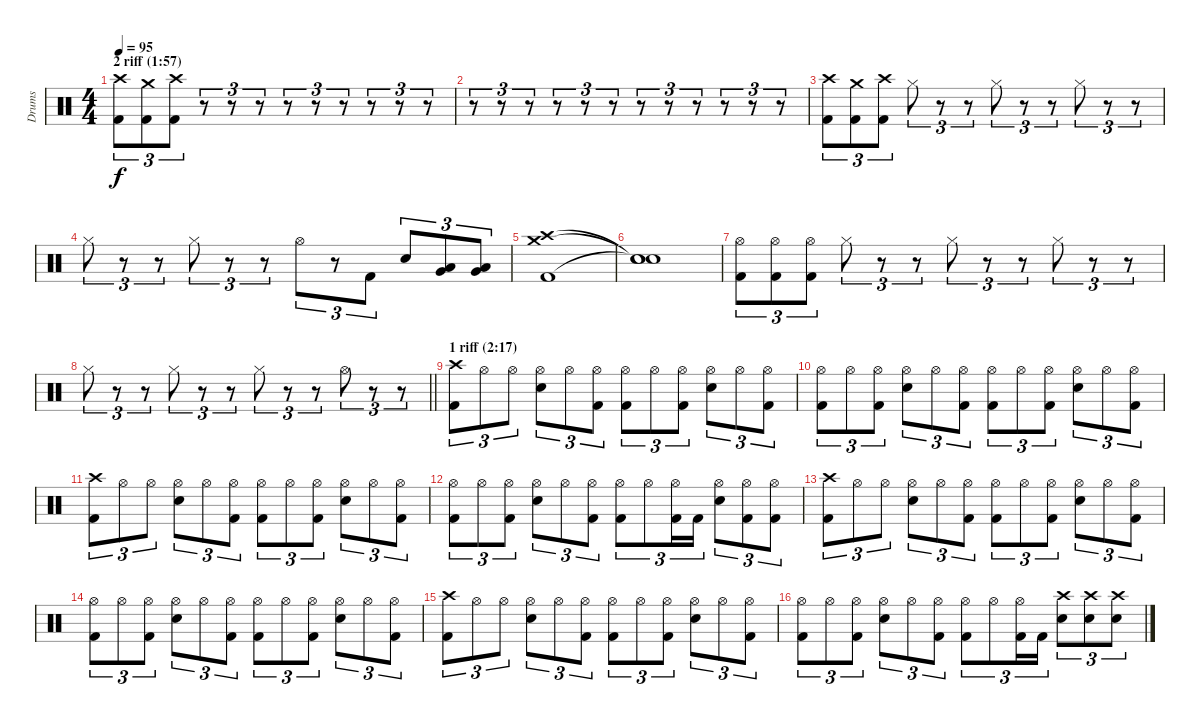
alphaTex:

\track ("Drums" "Drums") {instrument percussion}
\staff {score}
\articulation defaults
\ts (4 4)
\section ("" "2 riff (1:57)")
\tempo 95
\clef neutral
\ks c
("Crash high (hit)" "Kick (hit) 2").8{tu (3 2) dy f} ("Crash medium (hit)" "Kick (hit) 2").8{tu (3 2)} ("Crash high (hit)" "Kick (hit) 2").8{tu (3 2)} r.8{tu (3 2)} r.8{tu (3 2)} r.8{tu (3 2)} r.8{tu (3 2)} r.8{tu (3 2)} r.8{tu (3 2)} r.8{tu (3 2)} r.8{tu (3 2)} r.8{tu (3 2)} |
r.8{tu (3 2)} r.8{tu (3 2)} r.8{tu (3 2)} r.8{tu (3 2)} r.8{tu (3 2)} r.8{tu (3 2)} r.8{tu (3 2)} r.8{tu (3 2)} r.8{tu (3 2)} r.8{tu (3 2)} r.8{tu (3 2)} r.8{tu (3 2)} |
("Crash high (hit)" "Kick (hit) 2").8{tu (3 2)} ("Crash medium (hit)" "Kick (hit) 2").8{tu (3 2)} ("Crash high (hit)" "Kick (hit) 2").8{tu (3 2)} "Hi-Hat (closed)".8{tu (3 2)} r.8{tu (3 2)} r.8{tu (3 2)} "Hi-Hat (closed)".8{tu (3 2)} r.8{tu (3 2)} r.8{tu (3 2)} "Hi-Hat (closed)".8{tu (3 2)} r.8{tu (3 2)} r.8{tu (3 2)} |
"Hi-Hat (closed)".8{tu (3 2)} r.8{tu (3 2)} r.8{tu (3 2)} "Hi-Hat (closed)".8{tu (3 2)} r.8{tu (3 2)} r.8{tu (3 2)} "Hi-Hat (open)".8{tu (3 2)} r.8{tu (3 2)} "Kick (hit) 2".8{tu (3 2)} "Snare (hit) 2".8{tu (3 2)} ("Low Tom (hit)" "Very Low Tom (hit)").8{tu (3 2)} ("Low Tom (hit)" "Very Low Tom (hit)").8{tu (3 2)} |
("Crash medium (hit)" "Crash high (hit)" "Kick (hit) 2").1 |
("Snare (hit)"{t} "Snare (hit)"{t} "Snare (hit)"{t}).1 |
("Hi-Hat (open)" "Kick (hit) 2").8{tu (3 2)} ("Hi-Hat (open)" "Kick (hit) 2").8{tu (3 2)} ("Hi-Hat (open)" "Kick (hit) 2").8{tu (3 2)} "Hi-Hat (closed)".8{tu (3 2)} r.8{tu (3 2)} r.8{tu (3 2)} "Hi-Hat (closed)".8{tu (3 2)} r.8{tu (3 2)} r.8{tu (3 2)} "Hi-Hat (closed)".8{tu (3 2)} r.8{tu (3 2)} r.8{tu (3 2)} |
\barLineRight lightlight "Hi-Hat (closed)".8{tu (3 2)}
r.8{tu (3 2)} r.8{tu (3 2)} "Hi-Hat (closed)".8{tu (3 2)} r.8{tu (3 2)} r.8{tu (3 2)} "Hi-Hat (closed)".8{tu (3 2)} r.8{tu (3 2)} r.8{tu (3 2)} "Hi-Hat (open)".8{tu (3 2)} r.8{tu (3 2)} r.8{tu (3 2)} |
\section ("" "1 riff (2:17)")
("Crash high (hit)" "Kick (hit) 2").8{tu (3 2)} "Hi-Hat (open)".8{tu (3 2)} "Hi-Hat (open)".8{tu (3 2)} ("Hi-Hat (open)" "Snare (hit) 2").8{tu (3 2)} "Hi-Hat (open)".8{tu (3 2)} ("Hi-Hat (open)" "Kick (hit) 2").8{tu (3 2)} ("Hi-Hat (open)" "Kick (hit) 2").8{tu (3 2)} "Hi-Hat (open)".8{tu (3 2)} ("Hi-Hat (open)" "Kick (hit) 2").8{tu (3 2)} ("Hi-Hat (open)" "Snare (hit) 2").8{tu (3 2)} "Hi-Hat (open)".8{tu (3 2)} ("Hi-Hat (open)" "Kick (hit) 2").8{tu (3 2)} |
("Hi-Hat (open)" "Kick (hit) 2").8{tu (3 2)} "Hi-Hat (open)".8{tu (3 2)} ("Hi-Hat (open)" "Kick (hit) 2").8{tu (3 2)} ("Hi-Hat (open)" "Snare (hit) 2").8{tu (3 2)} "Hi-Hat (open)".8{tu (3 2)} ("Hi-Hat (open)" "Kick (hit) 2").8{tu (3 2)} ("Hi-Hat (open)" "Kick (hit) 2").8{tu (3 2)} "Hi-Hat (open)".8{tu (3 2)} ("Hi-Hat (open)" "Kick (hit) 2").8{tu (3 2)} ("Hi-Hat (open)" "Snare (hit) 2").8{tu (3 2)} "Hi-Hat (open)".8{tu (3 2)} ("Hi-Hat (open)" "Kick (hit) 2").8{tu (3 2)} |
("Crash high (hit)" "Kick (hit) 2").8{tu (3 2)} "Hi-Hat (open)".8{tu (3 2)} "Hi-Hat (open)".8{tu (3 2)} ("Hi-Hat (open)" "Snare (hit) 2").8{tu (3 2)} "Hi-Hat (open)".8{tu (3 2)} ("Hi-Hat (open)" "Kick (hit) 2").8{tu (3 2)} ("Hi-Hat (open)" "Kick (hit) 2").8{tu (3 2)} "Hi-Hat (open)".8{tu (3 2)} ("Hi-Hat (open)" "Kick (hit) 2").8{tu (3 2)} ("Hi-Hat (open)" "Snare (hit) 2").8{tu (3 2)} "Hi-Hat (open)".8{tu (3 2)} ("Hi-Hat (open)" "Kick (hit) 2").8{tu (3 2)} |
("Hi-Hat (open)" "Kick (hit) 2").8{tu (3 2)} "Hi-Hat (open)".8{tu (3 2)} ("Hi-Hat (open)" "Kick (hit) 2").8{tu (3 2)} ("Hi-Hat (open)" "Snare (hit) 2").8{tu (3 2)} "Hi-Hat (open)".8{tu (3 2)} ("Hi-Hat (open)" "Kick (hit) 2").8{tu (3 2)} ("Hi-Hat (open)" "Kick (hit) 2").8{tu (3 2)} "Hi-Hat (open)".8{tu (3 2)} ("Hi-Hat (open)" "Kick (hit) 2").16{tu (3 2)} "Kick (hit) 2".16{tu (3 2)} ("Hi-Hat (open)" "Snare (hit) 2").8{tu (3 2)} ("Hi-Hat (open)" "Kick (hit) 2").8{tu (3 2)} ("Hi-Hat (open)" "Kick (hit) 2").8{tu (3 2)} |
("Crash high (hit)" "Kick (hit) 2").8{tu (3 2)} "Hi-Hat (open)".8{tu (3 2)} "Hi-Hat (open)".8{tu (3 2)} ("Hi-Hat (open)" "Snare (hit) 2").8{tu (3 2)} "Hi-Hat (open)".8{tu (3 2)} ("Hi-Hat (open)" "Kick (hit) 2").8{tu (3 2)} ("Hi-Hat (open)" "Kick (hit) 2").8{tu (3 2)} "Hi-Hat (open)".8{tu (3 2)} ("Hi-Hat (open)" "Kick (hit) 2").8{tu (3 2)} ("Hi-Hat (open)" "Snare (hit) 2").8{tu (3 2)} "Hi-Hat (open)".8{tu (3 2)} ("Hi-Hat (open)" "Kick (hit) 2").8{tu (3 2)} |
("Hi-Hat (open)" "Kick (hit) 2").8{tu (3 2)} "Hi-Hat (open)".8{tu (3 2)} ("Hi-Hat (open)" "Kick (hit) 2").8{tu (3 2)} ("Hi-Hat (open)" "Snare (hit) 2").8{tu (3 2)} "Hi-Hat (open)".8{tu (3 2)} ("Hi-Hat (open)" "Kick (hit) 2").8{tu (3 2)} ("Hi-Hat (open)" "Kick (hit) 2").8{tu (3 2)} "Hi-Hat (open)".8{tu (3 2)} ("Hi-Hat (open)" "Kick (hit) 2").8{tu (3 2)} ("Hi-Hat (open)" "Snare (hit) 2").8{tu (3 2)} "Hi-Hat (open)".8{tu (3 2)} ("Hi-Hat (open)" "Kick (hit) 2").8{tu (3 2)} |
("Crash high (hit)" "Kick (hit) 2").8{tu (3 2)} "Hi-Hat (open)".8{tu (3 2)} "Hi-Hat (open)".8{tu (3 2)} ("Hi-Hat (open)" "Snare (hit) 2").8{tu (3 2)} "Hi-Hat (open)".8{tu (3 2)} ("Hi-Hat (open)" "Kick (hit) 2").8{tu (3 2)} ("Hi-Hat (open)" "Kick (hit) 2").8{tu (3 2)} "Hi-Hat (open)".8{tu (3 2)} ("Hi-Hat (open)" "Kick (hit) 2").8{tu (3 2)} ("Hi-Hat (open)" "Snare (hit) 2").8{tu (3 2)} "Hi-Hat (open)".8{tu (3 2)} ("Hi-Hat (open)" "Kick (hit) 2").8{tu (3 2)} |
("Hi-Hat (open)" "Kick (hit) 2").8{tu (3 2)} "Hi-Hat (open)".8{tu (3 2)} ("Hi-Hat (open)" "Kick (hit) 2").8{tu (3 2)} ("Hi-Hat (open)" "Snare (hit) 2").8{tu (3 2)} "Hi-Hat (open)".8{tu (3 2)} ("Hi-Hat (open)" "Kick (hit) 2").8{tu (3 2)} ("Hi-Hat (open)" "Kick (hit) 2").8{tu (3 2)} "Hi-Hat (open)".8{tu (3 2)} ("Hi-Hat (open)" "Kick (hit) 2").16{tu (3 2)} "Kick (hit) 2".16{tu (3 2)} ("Crash high (hit)" "Snare (hit) 2").8{tu (3 2)} ("Crash high (hit)" "Snare (hit) 2").8{tu (3 2)} ("Crash high (hit)" "Snare (hit) 2").8{tu (3 2)}
